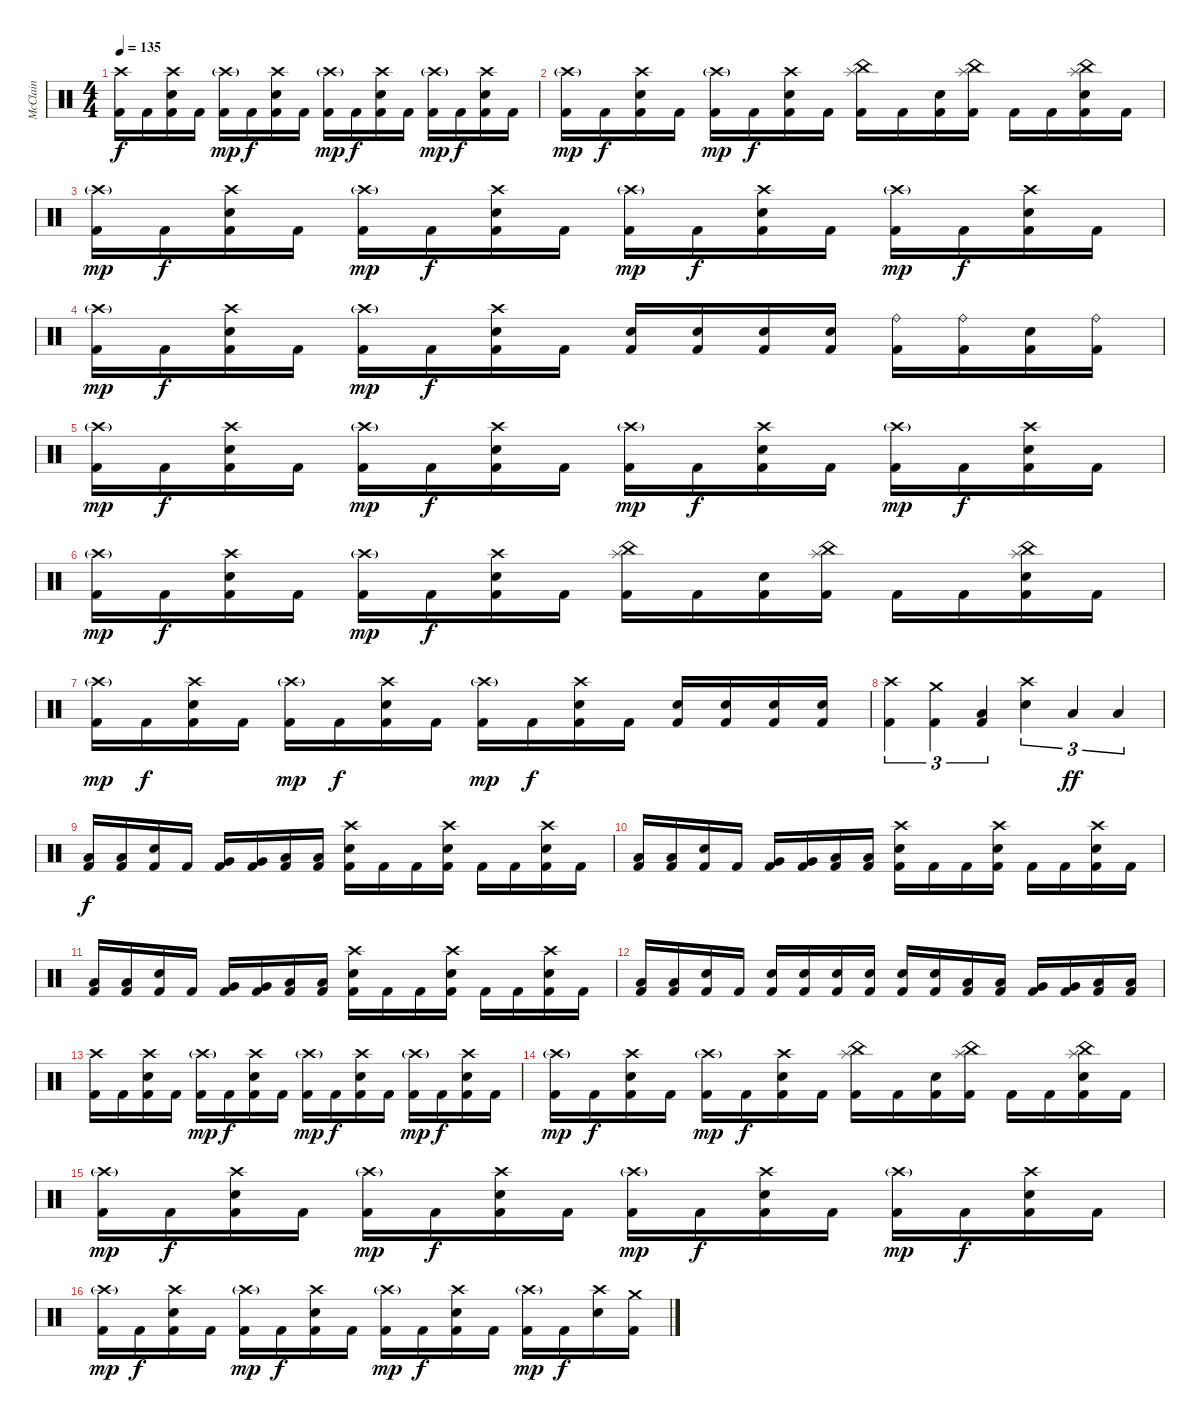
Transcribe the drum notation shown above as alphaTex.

\track ("McClain" "McClain") {instrument percussion}
\staff {score}
\articulation defaults
\ts (4 4)
\tempo 135
\clef neutral
\ks c
("Crash high (hit)" "Kick (hit) 2").16{dy f} "Kick (hit) 2".16 ("Crash high (hit)" "Electric Snare (hit)" "Kick (hit) 2").16 "Kick (hit) 2".16 ("Crash high (hit)"{g} "Kick (hit) 2").16{dy mp} "Kick (hit) 2".16{dy f} ("Crash high (hit)" "Electric Snare (hit)" "Kick (hit) 2").16 "Kick (hit) 2".16 ("Crash high (hit)"{g} "Kick (hit) 2").16{dy mp} "Kick (hit) 2".16{dy f} ("Crash high (hit)" "Electric Snare (hit)" "Kick (hit) 2").16 "Kick (hit) 2".16 ("Crash high (hit)"{g} "Kick (hit) 2").16{dy mp} "Kick (hit) 2".16{dy f} ("Crash high (hit)" "Electric Snare (hit)" "Kick (hit) 2").16 "Kick (hit) 2".16 |
("Crash high (hit)"{g} "Kick (hit) 2").16{dy mp} "Kick (hit) 2".16{dy f} ("Crash high (hit)" "Electric Snare (hit)" "Kick (hit) 2").16 "Kick (hit) 2".16 ("Crash high (hit)"{g} "Kick (hit) 2").16{dy mp} "Kick (hit) 2".16{dy f} ("Crash high (hit)" "Electric Snare (hit)" "Kick (hit) 2").16 "Kick (hit) 2".16 ("China (hit)" "Splash (hit)" "Kick (hit) 2").16 "Kick (hit) 2".16 ("Electric Snare (hit)" "Kick (hit) 2").16 ("China (hit)" "Splash (hit)" "Kick (hit) 2").16 "Kick (hit) 2".16 "Kick (hit) 2".16 ("China (hit)" "Splash (hit)" "Electric Snare (hit)" "Kick (hit) 2").16 "Kick (hit) 2".16 |
("Crash high (hit)"{g} "Kick (hit) 2").16{dy mp} "Kick (hit) 2".16{dy f} ("Crash high (hit)" "Electric Snare (hit)" "Kick (hit) 2").16 "Kick (hit) 2".16 ("Crash high (hit)"{g} "Kick (hit) 2").16{dy mp} "Kick (hit) 2".16{dy f} ("Crash high (hit)" "Electric Snare (hit)" "Kick (hit) 2").16 "Kick (hit) 2".16 ("Crash high (hit)"{g} "Kick (hit) 2").16{dy mp} "Kick (hit) 2".16{dy f} ("Crash high (hit)" "Electric Snare (hit)" "Kick (hit) 2").16 "Kick (hit) 2".16 ("Crash high (hit)"{g} "Kick (hit) 2").16{dy mp} "Kick (hit) 2".16{dy f} ("Crash high (hit)" "Electric Snare (hit)" "Kick (hit) 2").16 "Kick (hit) 2".16 |
("Crash high (hit)"{g} "Kick (hit) 2").16{dy mp} "Kick (hit) 2".16{dy f} ("Crash high (hit)" "Electric Snare (hit)" "Kick (hit) 2").16 "Kick (hit) 2".16 ("Crash high (hit)"{g} "Kick (hit) 2").16{dy mp} "Kick (hit) 2".16{dy f} ("Crash high (hit)" "Electric Snare (hit)" "Kick (hit) 2").16 "Kick (hit) 2".16 ("Electric Snare (hit)" "Kick (hit) 2").16 ("Electric Snare (hit)" "Kick (hit) 2").16 ("Electric Snare (hit)" "Kick (hit) 2").16 ("Electric Snare (hit)" "Kick (hit) 2").16 ("Ride (bell)" "Kick (hit) 2").16 ("Ride (bell)" "Kick (hit) 2").16 ("Electric Snare (hit)" "Kick (hit) 2").16 ("Ride (bell)" "Kick (hit) 2").16 |
("Crash high (hit)"{g} "Kick (hit) 2").16{dy mp} "Kick (hit) 2".16{dy f} ("Crash high (hit)" "Electric Snare (hit)" "Kick (hit) 2").16 "Kick (hit) 2".16 ("Crash high (hit)"{g} "Kick (hit) 2").16{dy mp} "Kick (hit) 2".16{dy f} ("Crash high (hit)" "Electric Snare (hit)" "Kick (hit) 2").16 "Kick (hit) 2".16 ("Crash high (hit)"{g} "Kick (hit) 2").16{dy mp} "Kick (hit) 2".16{dy f} ("Crash high (hit)" "Electric Snare (hit)" "Kick (hit) 2").16 "Kick (hit) 2".16 ("Crash high (hit)"{g} "Kick (hit) 2").16{dy mp} "Kick (hit) 2".16{dy f} ("Crash high (hit)" "Electric Snare (hit)" "Kick (hit) 2").16 "Kick (hit) 2".16 |
("Crash high (hit)"{g} "Kick (hit) 2").16{dy mp} "Kick (hit) 2".16{dy f} ("Crash high (hit)" "Electric Snare (hit)" "Kick (hit) 2").16 "Kick (hit) 2".16 ("Crash high (hit)"{g} "Kick (hit) 2").16{dy mp} "Kick (hit) 2".16{dy f} ("Crash high (hit)" "Electric Snare (hit)" "Kick (hit) 2").16 "Kick (hit) 2".16 ("China (hit)" "Splash (hit)" "Kick (hit) 2").16 "Kick (hit) 2".16 ("Electric Snare (hit)" "Kick (hit) 2").16 ("China (hit)" "Splash (hit)" "Kick (hit) 2").16 "Kick (hit) 2".16 "Kick (hit) 2".16 ("China (hit)" "Splash (hit)" "Electric Snare (hit)" "Kick (hit) 2").16 "Kick (hit) 2".16 |
("Crash high (hit)"{g} "Kick (hit) 2").16{dy mp} "Kick (hit) 2".16{dy f} ("Crash high (hit)" "Electric Snare (hit)" "Kick (hit) 2").16 "Kick (hit) 2".16 ("Crash high (hit)"{g} "Kick (hit) 2").16{dy mp} "Kick (hit) 2".16{dy f} ("Crash high (hit)" "Electric Snare (hit)" "Kick (hit) 2").16 "Kick (hit) 2".16 ("Crash high (hit)"{g} "Kick (hit) 2").16{dy mp} "Kick (hit) 2".16{dy f} ("Crash high (hit)" "Electric Snare (hit)" "Kick (hit) 2").16 "Kick (hit) 2".16 ("Electric Snare (hit)" "Kick (hit) 2").16 ("Electric Snare (hit)" "Kick (hit) 2").16 ("Electric Snare (hit)" "Kick (hit) 2").16 ("Electric Snare (hit)" "Kick (hit) 2").16 |
("Crash high (hit)" "Kick (hit) 2").4{tu (3 2)} ("Crash medium (hit)" "Kick (hit) 2").4{tu (3 2)} ("Low Floor Tom (hit)" "Kick (hit) 2").4{tu (3 2)} ("Crash high (hit)" "Electric Snare (hit)").4{tu (3 2)} "Low Tom (hit)".4{tu (3 2) dy ff} "Low Floor Tom (hit)".4{tu (3 2)} |
("Low Tom (hit)" "Kick (hit) 2").16{dy f} ("Low Tom (hit)" "Kick (hit) 2").16 ("Electric Snare (hit)" "Kick (hit) 2").16 "Kick (hit) 2".16 ("Very Low Tom (hit)" "Kick (hit) 2").16 ("Very Low Tom (hit)" "Kick (hit) 2").16 ("Low Floor Tom (hit)" "Kick (hit) 2").16 ("Low Floor Tom (hit)" "Kick (hit) 2").16 ("Crash high (hit)" "Electric Snare (hit)" "Kick (hit) 2").16 "Kick (hit) 2".16 "Kick (hit) 2".16 ("Crash high (hit)" "Electric Snare (hit)" "Kick (hit) 2").16 "Kick (hit) 2".16 "Kick (hit) 2".16 ("Crash high (hit)" "Electric Snare (hit)" "Kick (hit) 2").16 "Kick (hit) 2".16 |
("Low Tom (hit)" "Kick (hit) 2").16 ("Low Tom (hit)" "Kick (hit) 2").16 ("Electric Snare (hit)" "Kick (hit) 2").16 "Kick (hit) 2".16 ("Very Low Tom (hit)" "Kick (hit) 2").16 ("Very Low Tom (hit)" "Kick (hit) 2").16 ("Low Floor Tom (hit)" "Kick (hit) 2").16 ("Low Floor Tom (hit)" "Kick (hit) 2").16 ("Crash high (hit)" "Electric Snare (hit)" "Kick (hit) 2").16 "Kick (hit) 2".16 "Kick (hit) 2".16 ("Crash high (hit)" "Electric Snare (hit)" "Kick (hit) 2").16 "Kick (hit) 2".16 "Kick (hit) 2".16 ("Crash high (hit)" "Electric Snare (hit)" "Kick (hit) 2").16 "Kick (hit) 2".16 |
("Low Tom (hit)" "Kick (hit) 2").16 ("Low Tom (hit)" "Kick (hit) 2").16 ("Electric Snare (hit)" "Kick (hit) 2").16 "Kick (hit) 2".16 ("Very Low Tom (hit)" "Kick (hit) 2").16 ("Very Low Tom (hit)" "Kick (hit) 2").16 ("Low Floor Tom (hit)" "Kick (hit) 2").16 ("Low Floor Tom (hit)" "Kick (hit) 2").16 ("Crash high (hit)" "Electric Snare (hit)" "Kick (hit) 2").16 "Kick (hit) 2".16 "Kick (hit) 2".16 ("Crash high (hit)" "Electric Snare (hit)" "Kick (hit) 2").16 "Kick (hit) 2".16 "Kick (hit) 2".16 ("Crash high (hit)" "Electric Snare (hit)" "Kick (hit) 2").16 "Kick (hit) 2".16 |
("Low Tom (hit)" "Kick (hit) 2").16 ("Low Tom (hit)" "Kick (hit) 2").16 ("Electric Snare (hit)" "Kick (hit) 2").16 "Kick (hit) 2".16 ("Electric Snare (hit)" "Kick (hit) 2").16 ("Electric Snare (hit)" "Kick (hit) 2").16 ("Electric Snare (hit)" "Kick (hit) 2").16 ("Electric Snare (hit)" "Kick (hit) 2").16 ("Electric Snare (hit)" "Kick (hit) 2").16 ("Electric Snare (hit)" "Kick (hit) 2").16 ("Low Tom (hit)" "Kick (hit) 2").16 ("Low Tom (hit)" "Kick (hit) 2").16 ("Very Low Tom (hit)" "Kick (hit) 2").16 ("Very Low Tom (hit)" "Kick (hit) 2").16 ("Low Floor Tom (hit)" "Kick (hit) 2").16 ("Low Floor Tom (hit)" "Kick (hit) 2").16 |
("Crash high (hit)" "Kick (hit) 2").16 "Kick (hit) 2".16 ("Crash high (hit)" "Electric Snare (hit)" "Kick (hit) 2").16 "Kick (hit) 2".16 ("Crash high (hit)"{g} "Kick (hit) 2").16{dy mp} "Kick (hit) 2".16{dy f} ("Crash high (hit)" "Electric Snare (hit)" "Kick (hit) 2").16 "Kick (hit) 2".16 ("Crash high (hit)"{g} "Kick (hit) 2").16{dy mp} "Kick (hit) 2".16{dy f} ("Crash high (hit)" "Electric Snare (hit)" "Kick (hit) 2").16 "Kick (hit) 2".16 ("Crash high (hit)"{g} "Kick (hit) 2").16{dy mp} "Kick (hit) 2".16{dy f} ("Crash high (hit)" "Electric Snare (hit)" "Kick (hit) 2").16 "Kick (hit) 2".16 |
("Crash high (hit)"{g} "Kick (hit) 2").16{dy mp} "Kick (hit) 2".16{dy f} ("Crash high (hit)" "Electric Snare (hit)" "Kick (hit) 2").16 "Kick (hit) 2".16 ("Crash high (hit)"{g} "Kick (hit) 2").16{dy mp} "Kick (hit) 2".16{dy f} ("Crash high (hit)" "Electric Snare (hit)" "Kick (hit) 2").16 "Kick (hit) 2".16 ("China (hit)" "Splash (hit)" "Kick (hit) 2").16 "Kick (hit) 2".16 ("Electric Snare (hit)" "Kick (hit) 2").16 ("China (hit)" "Splash (hit)" "Kick (hit) 2").16 "Kick (hit) 2".16 "Kick (hit) 2".16 ("China (hit)" "Splash (hit)" "Electric Snare (hit)" "Kick (hit) 2").16 "Kick (hit) 2".16 |
("Crash high (hit)"{g} "Kick (hit) 2").16{dy mp} "Kick (hit) 2".16{dy f} ("Crash high (hit)" "Electric Snare (hit)" "Kick (hit) 2").16 "Kick (hit) 2".16 ("Crash high (hit)"{g} "Kick (hit) 2").16{dy mp} "Kick (hit) 2".16{dy f} ("Crash high (hit)" "Electric Snare (hit)" "Kick (hit) 2").16 "Kick (hit) 2".16 ("Crash high (hit)"{g} "Kick (hit) 2").16{dy mp} "Kick (hit) 2".16{dy f} ("Crash high (hit)" "Electric Snare (hit)" "Kick (hit) 2").16 "Kick (hit) 2".16 ("Crash high (hit)"{g} "Kick (hit) 2").16{dy mp} "Kick (hit) 2".16{dy f} ("Crash high (hit)" "Electric Snare (hit)" "Kick (hit) 2").16 "Kick (hit) 2".16 |
("Crash high (hit)"{g} "Kick (hit) 2").16{dy mp} "Kick (hit) 2".16{dy f} ("Crash high (hit)" "Electric Snare (hit)" "Kick (hit) 2").16 "Kick (hit) 2".16 ("Crash high (hit)"{g} "Kick (hit) 2").16{dy mp} "Kick (hit) 2".16{dy f} ("Crash high (hit)" "Electric Snare (hit)" "Kick (hit) 2").16 "Kick (hit) 2".16 ("Crash high (hit)"{g} "Kick (hit) 2").16{dy mp} "Kick (hit) 2".16{dy f} ("Crash high (hit)" "Electric Snare (hit)" "Kick (hit) 2").16 "Kick (hit) 2".16 ("Crash high (hit)"{g} "Kick (hit) 2").16{dy mp} "Kick (hit) 2".16{dy f} ("Crash high (hit)" "Electric Snare (hit)").16 ("Crash medium (hit)" "Kick (hit) 2").16
